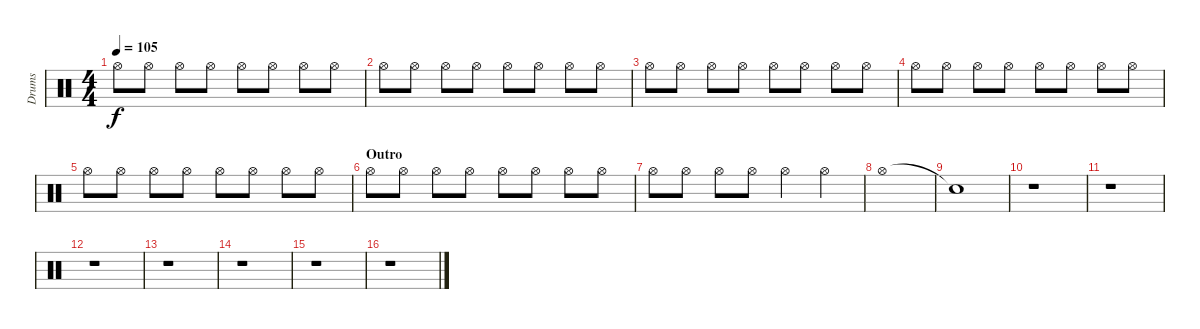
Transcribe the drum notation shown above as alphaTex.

\track ("Drums" "Drums") {instrument percussion}
\staff {score}
\articulation defaults
\ts (4 4)
\tempo 105
\clef neutral
\ks c "Hi-Hat (open)".8{dy f} "Hi-Hat (open)".8 "Hi-Hat (open)".8 "Hi-Hat (open)".8 "Hi-Hat (open)".8 "Hi-Hat (open)".8 "Hi-Hat (open)".8 "Hi-Hat (open)".8
|
"Hi-Hat (open)".8 "Hi-Hat (open)".8 "Hi-Hat (open)".8 "Hi-Hat (open)".8 "Hi-Hat (open)".8 "Hi-Hat (open)".8 "Hi-Hat (open)".8 "Hi-Hat (open)".8 |
"Hi-Hat (open)".8 "Hi-Hat (open)".8 "Hi-Hat (open)".8 "Hi-Hat (open)".8 "Hi-Hat (open)".8 "Hi-Hat (open)".8 "Hi-Hat (open)".8 "Hi-Hat (open)".8 |
"Hi-Hat (open)".8 "Hi-Hat (open)".8 "Hi-Hat (open)".8 "Hi-Hat (open)".8 "Hi-Hat (open)".8 "Hi-Hat (open)".8 "Hi-Hat (open)".8 "Hi-Hat (open)".8 |
"Hi-Hat (open)".8 "Hi-Hat (open)".8 "Hi-Hat (open)".8 "Hi-Hat (open)".8 "Hi-Hat (open)".8 "Hi-Hat (open)".8 "Hi-Hat (open)".8 "Hi-Hat (open)".8 |
\section ("" "Outro")
"Hi-Hat (open)".8 "Hi-Hat (open)".8 "Hi-Hat (open)".8 "Hi-Hat (open)".8 "Hi-Hat (open)".8 "Hi-Hat (open)".8 "Hi-Hat (open)".8 "Hi-Hat (open)".8 |
"Hi-Hat (open)".8 "Hi-Hat (open)".8 "Hi-Hat (open)".8 "Hi-Hat (open)".8 "Hi-Hat (open)".4 "Hi-Hat (open)".4 |
"Hi-Hat (open)".1 |
"Snare (hit)"{t}.1 |
r.1 |
r.1 |
r.1 |
r.1 |
r.1 |
r.1 |
r.1
